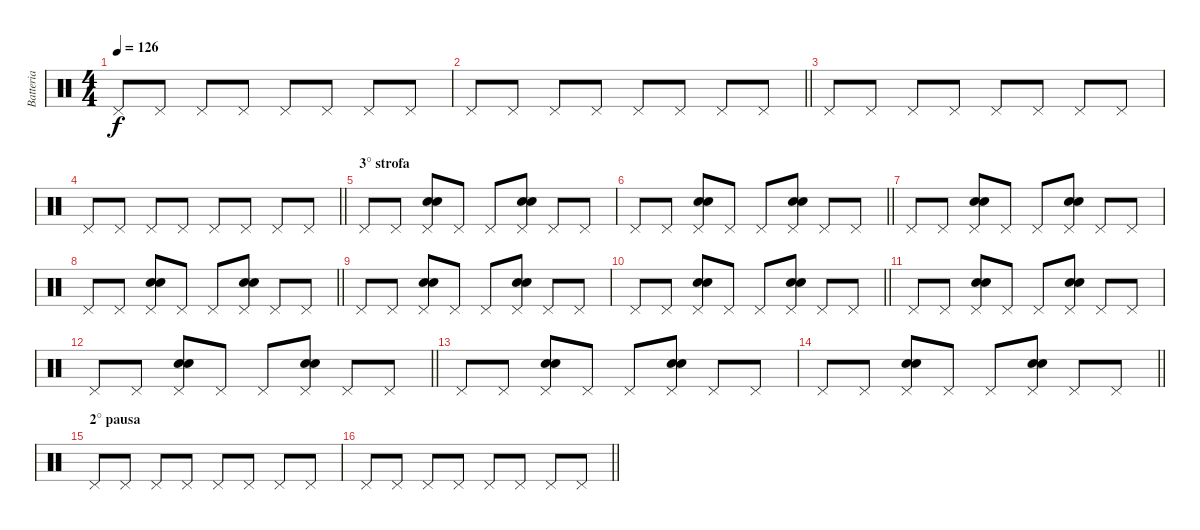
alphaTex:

\track ("Batteria" "Batteria") {instrument percussion}
\staff {score}
\articulation defaults
\ts (4 4)
\tempo 126
\clef neutral
\ks c "Pedal Hi-Hat (hit)".8{dy f} "Pedal Hi-Hat (hit)".8 "Pedal Hi-Hat (hit)".8 "Pedal Hi-Hat (hit)".8 "Pedal Hi-Hat (hit)".8 "Pedal Hi-Hat (hit)".8 "Pedal Hi-Hat (hit)".8 "Pedal Hi-Hat (hit)".8
|
\barLineRight lightlight "Pedal Hi-Hat (hit)".8 "Pedal Hi-Hat (hit)".8 "Pedal Hi-Hat (hit)".8 "Pedal Hi-Hat (hit)".8 "Pedal Hi-Hat (hit)".8 "Pedal Hi-Hat (hit)".8 "Pedal Hi-Hat (hit)".8 "Pedal Hi-Hat (hit)".8
|
"Pedal Hi-Hat (hit)".8 "Pedal Hi-Hat (hit)".8 "Pedal Hi-Hat (hit)".8 "Pedal Hi-Hat (hit)".8 "Pedal Hi-Hat (hit)".8 "Pedal Hi-Hat (hit)".8 "Pedal Hi-Hat (hit)".8 "Pedal Hi-Hat (hit)".8 |
\barLineRight lightlight "Pedal Hi-Hat (hit)".8 "Pedal Hi-Hat (hit)".8 "Pedal Hi-Hat (hit)".8 "Pedal Hi-Hat (hit)".8 "Pedal Hi-Hat (hit)".8 "Pedal Hi-Hat (hit)".8 "Pedal Hi-Hat (hit)".8 "Pedal Hi-Hat (hit)".8
|
\section ("" "3° strofa")
"Pedal Hi-Hat (hit)".8 "Pedal Hi-Hat (hit)".8 ("Pedal Hi-Hat (hit)" "Snare (hit) 2" "Electric Snare (hit)").8 "Pedal Hi-Hat (hit)".8 "Pedal Hi-Hat (hit)".8 ("Pedal Hi-Hat (hit)" "Snare (hit) 2" "Electric Snare (hit)").8 "Pedal Hi-Hat (hit)".8 "Pedal Hi-Hat (hit)".8 |
\barLineRight lightlight "Pedal Hi-Hat (hit)".8 "Pedal Hi-Hat (hit)".8
("Pedal Hi-Hat (hit)" "Snare (hit) 2" "Electric Snare (hit)").8 "Pedal Hi-Hat (hit)".8 "Pedal Hi-Hat (hit)".8 ("Pedal Hi-Hat (hit)" "Snare (hit) 2" "Electric Snare (hit)").8 "Pedal Hi-Hat (hit)".8 "Pedal Hi-Hat (hit)".8 |
"Pedal Hi-Hat (hit)".8 "Pedal Hi-Hat (hit)".8 ("Pedal Hi-Hat (hit)" "Snare (hit) 2" "Electric Snare (hit)").8 "Pedal Hi-Hat (hit)".8 "Pedal Hi-Hat (hit)".8 ("Pedal Hi-Hat (hit)" "Snare (hit) 2" "Electric Snare (hit)").8 "Pedal Hi-Hat (hit)".8 "Pedal Hi-Hat (hit)".8 |
\barLineRight lightlight "Pedal Hi-Hat (hit)".8 "Pedal Hi-Hat (hit)".8
("Pedal Hi-Hat (hit)" "Snare (hit) 2" "Electric Snare (hit)").8 "Pedal Hi-Hat (hit)".8 "Pedal Hi-Hat (hit)".8 ("Pedal Hi-Hat (hit)" "Snare (hit) 2" "Electric Snare (hit)").8 "Pedal Hi-Hat (hit)".8 "Pedal Hi-Hat (hit)".8 |
"Pedal Hi-Hat (hit)".8 "Pedal Hi-Hat (hit)".8 ("Pedal Hi-Hat (hit)" "Snare (hit) 2" "Electric Snare (hit)").8 "Pedal Hi-Hat (hit)".8 "Pedal Hi-Hat (hit)".8 ("Pedal Hi-Hat (hit)" "Snare (hit) 2" "Electric Snare (hit)").8 "Pedal Hi-Hat (hit)".8 "Pedal Hi-Hat (hit)".8 |
\barLineRight lightlight "Pedal Hi-Hat (hit)".8 "Pedal Hi-Hat (hit)".8
("Pedal Hi-Hat (hit)" "Snare (hit) 2" "Electric Snare (hit)").8 "Pedal Hi-Hat (hit)".8 "Pedal Hi-Hat (hit)".8 ("Pedal Hi-Hat (hit)" "Snare (hit) 2" "Electric Snare (hit)").8 "Pedal Hi-Hat (hit)".8 "Pedal Hi-Hat (hit)".8 |
"Pedal Hi-Hat (hit)".8 "Pedal Hi-Hat (hit)".8 ("Pedal Hi-Hat (hit)" "Snare (hit) 2" "Electric Snare (hit)").8 "Pedal Hi-Hat (hit)".8 "Pedal Hi-Hat (hit)".8 ("Pedal Hi-Hat (hit)" "Snare (hit) 2" "Electric Snare (hit)").8 "Pedal Hi-Hat (hit)".8 "Pedal Hi-Hat (hit)".8 |
\barLineRight lightlight "Pedal Hi-Hat (hit)".8 "Pedal Hi-Hat (hit)".8
("Pedal Hi-Hat (hit)" "Snare (hit) 2" "Electric Snare (hit)").8 "Pedal Hi-Hat (hit)".8 "Pedal Hi-Hat (hit)".8 ("Pedal Hi-Hat (hit)" "Snare (hit) 2" "Electric Snare (hit)").8 "Pedal Hi-Hat (hit)".8 "Pedal Hi-Hat (hit)".8 |
"Pedal Hi-Hat (hit)".8 "Pedal Hi-Hat (hit)".8 ("Pedal Hi-Hat (hit)" "Snare (hit) 2" "Electric Snare (hit)").8 "Pedal Hi-Hat (hit)".8 "Pedal Hi-Hat (hit)".8 ("Pedal Hi-Hat (hit)" "Snare (hit) 2" "Electric Snare (hit)").8 "Pedal Hi-Hat (hit)".8 "Pedal Hi-Hat (hit)".8 |
\barLineRight lightlight "Pedal Hi-Hat (hit)".8 "Pedal Hi-Hat (hit)".8
("Pedal Hi-Hat (hit)" "Snare (hit) 2" "Electric Snare (hit)").8 "Pedal Hi-Hat (hit)".8 "Pedal Hi-Hat (hit)".8 ("Pedal Hi-Hat (hit)" "Snare (hit) 2" "Electric Snare (hit)").8 "Pedal Hi-Hat (hit)".8 "Pedal Hi-Hat (hit)".8 |
\section ("" "2° pausa")
"Pedal Hi-Hat (hit)".8 "Pedal Hi-Hat (hit)".8 "Pedal Hi-Hat (hit)".8 "Pedal Hi-Hat (hit)".8 "Pedal Hi-Hat (hit)".8 "Pedal Hi-Hat (hit)".8 "Pedal Hi-Hat (hit)".8 "Pedal Hi-Hat (hit)".8 |
\barLineRight lightlight "Pedal Hi-Hat (hit)".8 "Pedal Hi-Hat (hit)".8 "Pedal Hi-Hat (hit)".8 "Pedal Hi-Hat (hit)".8 "Pedal Hi-Hat (hit)".8 "Pedal Hi-Hat (hit)".8 "Pedal Hi-Hat (hit)".8 "Pedal Hi-Hat (hit)".8
